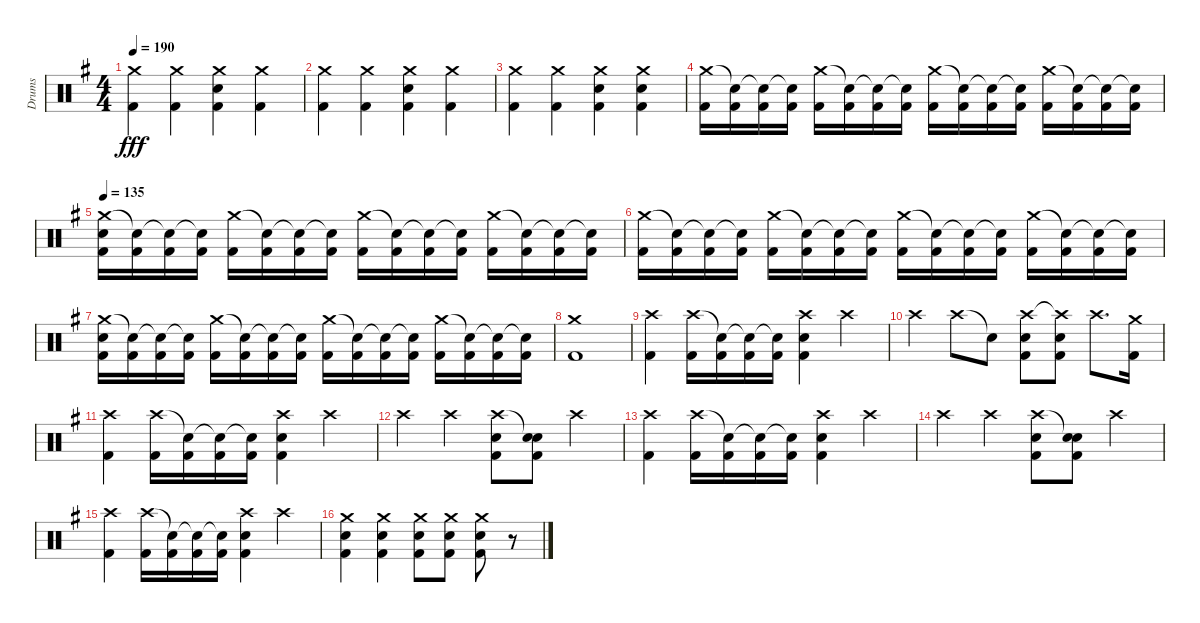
\track ("Drums" "Drums") {instrument percussion}
\staff {score}
\articulation defaults
\ts (4 4)
\tempo 190
\clef neutral
\ks eminor
("Crash medium (hit)" "Kick (hit) 2").4{dy fff} ("Crash medium (hit)" "Kick (hit) 2").4 ("Crash medium (hit)" "Electric Snare (hit)" "Kick (hit) 2").4 ("Crash medium (hit)" "Kick (hit) 2").4 |
("Crash medium (hit)" "Kick (hit) 2").4 ("Crash medium (hit)" "Kick (hit) 2").4 ("Crash medium (hit)" "Electric Snare (hit)" "Kick (hit) 2").4 ("Crash medium (hit)" "Kick (hit) 2").4 |
("Crash medium (hit)" "Kick (hit) 2").4 ("Crash medium (hit)" "Kick (hit) 2").4 ("Crash medium (hit)" "Electric Snare (hit)" "Kick (hit) 2").4 ("Crash medium (hit)" "Electric Snare (hit)" "Kick (hit) 2").4 |
("Crash medium (hit)" "Kick (hit) 2").16 ("Snare (hit)"{t} "Kick (hit) 2").16 ("Snare (hit)"{t} "Kick (hit) 2").16 ("Snare (hit)"{t} "Kick (hit) 2").16 ("Crash medium (hit)" "Kick (hit) 2").16 ("Snare (hit)"{t} "Kick (hit) 2").16 ("Snare (hit)"{t} "Kick (hit) 2").16 ("Snare (hit)"{t} "Kick (hit) 2").16 ("Crash medium (hit)" "Kick (hit) 2").16 ("Snare (hit)"{t} "Kick (hit) 2").16 ("Snare (hit)"{t} "Kick (hit) 2").16 ("Snare (hit)"{t} "Kick (hit) 2").16 ("Crash medium (hit)" "Kick (hit) 2").16 ("Snare (hit)"{t} "Kick (hit) 2").16 ("Snare (hit)"{t} "Kick (hit) 2").16 ("Snare (hit)"{t} "Kick (hit) 2").16 |
\tempo 135
("Crash medium (hit)" "Electric Snare (hit)" "Kick (hit) 2").16 ("Snare (hit)"{t} "Kick (hit) 2").16 ("Snare (hit)"{t} "Kick (hit) 2").16 ("Snare (hit)"{t} "Kick (hit) 2").16 ("Crash medium (hit)" "Kick (hit) 2").16 ("Snare (hit)"{t} "Kick (hit) 2").16 ("Snare (hit)"{t} "Kick (hit) 2").16 ("Snare (hit)"{t} "Kick (hit) 2").16 ("Crash medium (hit)" "Kick (hit) 2").16 ("Snare (hit)"{t} "Kick (hit) 2").16 ("Snare (hit)"{t} "Kick (hit) 2").16 ("Snare (hit)"{t} "Kick (hit) 2").16 ("Crash medium (hit)" "Kick (hit) 2").16 ("Snare (hit)"{t} "Kick (hit) 2").16 ("Snare (hit)"{t} "Kick (hit) 2").16 ("Snare (hit)"{t} "Kick (hit) 2").16 |
("Crash medium (hit)" "Kick (hit) 2").16 ("Snare (hit)"{t} "Kick (hit) 2").16 ("Snare (hit)"{t} "Kick (hit) 2").16 ("Snare (hit)"{t} "Kick (hit) 2").16 ("Crash medium (hit)" "Kick (hit) 2").16 ("Snare (hit)"{t} "Kick (hit) 2").16 ("Snare (hit)"{t} "Kick (hit) 2").16 ("Snare (hit)"{t} "Kick (hit) 2").16 ("Crash medium (hit)" "Kick (hit) 2").16 ("Snare (hit)"{t} "Kick (hit) 2").16 ("Snare (hit)"{t} "Kick (hit) 2").16 ("Snare (hit)"{t} "Kick (hit) 2").16 ("Crash medium (hit)" "Kick (hit) 2").16 ("Snare (hit)"{t} "Kick (hit) 2").16 ("Snare (hit)"{t} "Kick (hit) 2").16 ("Snare (hit)"{t} "Kick (hit) 2").16 |
("Crash medium (hit)" "Electric Snare (hit)" "Kick (hit) 2").16 ("Snare (hit)"{t} "Kick (hit) 2").16 ("Snare (hit)"{t} "Kick (hit) 2").16 ("Snare (hit)"{t} "Kick (hit) 2").16 ("Crash medium (hit)" "Kick (hit) 2").16 ("Snare (hit)"{t} "Kick (hit) 2").16 ("Snare (hit)"{t} "Kick (hit) 2").16 ("Snare (hit)"{t} "Kick (hit) 2").16 ("Crash medium (hit)" "Kick (hit) 2").16 ("Snare (hit)"{t} "Kick (hit) 2").16 ("Snare (hit)"{t} "Kick (hit) 2").16 ("Snare (hit)"{t} "Kick (hit) 2").16 ("Crash medium (hit)" "Kick (hit) 2").16 ("Snare (hit)"{t} "Kick (hit) 2").16 ("Snare (hit)"{t} "Kick (hit) 2").16 ("Snare (hit)"{t} "Kick (hit) 2").16 |
("Crash medium (hit)" "Kick (hit) 2").1 |
("Crash high (hit)" "Kick (hit) 2").4 ("Crash high (hit)" "Kick (hit) 2").16 ("Snare (hit)"{t} "Kick (hit) 2").16 ("Snare (hit)"{t} "Kick (hit) 2").16 ("Snare (hit)"{t} "Kick (hit) 2").16 ("Crash high (hit)" "Electric Snare (hit)" "Kick (hit) 2").4 "Crash high (hit)".4 |
"Crash high (hit)".4 "Crash high (hit)".8 "Snare (hit)"{t}.8 ("Crash high (hit)" "Electric Snare (hit)" "Kick (hit) 2").8 ("Crash high (hit)"{t} "Electric Snare (hit)" "Kick (hit) 2").8 "Crash high (hit)".8{d} ("Crash medium (hit)" "Kick (hit) 2").16 |
("Crash high (hit)" "Kick (hit) 2").4 ("Crash high (hit)" "Kick (hit) 2").16 ("Snare (hit)"{t} "Kick (hit) 2").16 ("Snare (hit)"{t} "Kick (hit) 2").16 ("Snare (hit)"{t} "Kick (hit) 2").16 ("Crash high (hit)" "Electric Snare (hit)" "Kick (hit) 2").4 "Crash high (hit)".4 |
"Crash high (hit)".4 "Crash high (hit)".4 ("Crash high (hit)" "Electric Snare (hit)" "Kick (hit) 2").8 ("Snare (hit)"{t} "Electric Snare (hit)" "Kick (hit) 2").8 "Crash high (hit)".4 |
("Crash high (hit)" "Kick (hit) 2").4 ("Crash high (hit)" "Kick (hit) 2").16 ("Snare (hit)"{t} "Kick (hit) 2").16 ("Snare (hit)"{t} "Kick (hit) 2").16 ("Snare (hit)"{t} "Kick (hit) 2").16 ("Crash high (hit)" "Electric Snare (hit)" "Kick (hit) 2").4 "Crash high (hit)".4 |
"Crash high (hit)".4 "Crash high (hit)".4 ("Crash high (hit)" "Electric Snare (hit)" "Kick (hit) 2").8 ("Snare (hit)"{t} "Electric Snare (hit)" "Kick (hit) 2").8 "Crash high (hit)".4 |
("Crash high (hit)" "Kick (hit) 2").4 ("Crash high (hit)" "Kick (hit) 2").16 ("Snare (hit)"{t} "Kick (hit) 2").16 ("Snare (hit)"{t} "Kick (hit) 2").16 ("Snare (hit)"{t} "Kick (hit) 2").16 ("Crash high (hit)" "Electric Snare (hit)" "Kick (hit) 2").4 "Crash high (hit)".4 |
("Crash medium (hit)" "Electric Snare (hit)" "Kick (hit) 2").4 ("Crash medium (hit)" "Electric Snare (hit)" "Kick (hit) 2").4 ("Crash medium (hit)" "Electric Snare (hit)" "Kick (hit) 2").8 ("Crash medium (hit)" "Electric Snare (hit)" "Kick (hit) 2").8 ("Crash medium (hit)" "Electric Snare (hit)" "Kick (hit) 2").8 r.8
